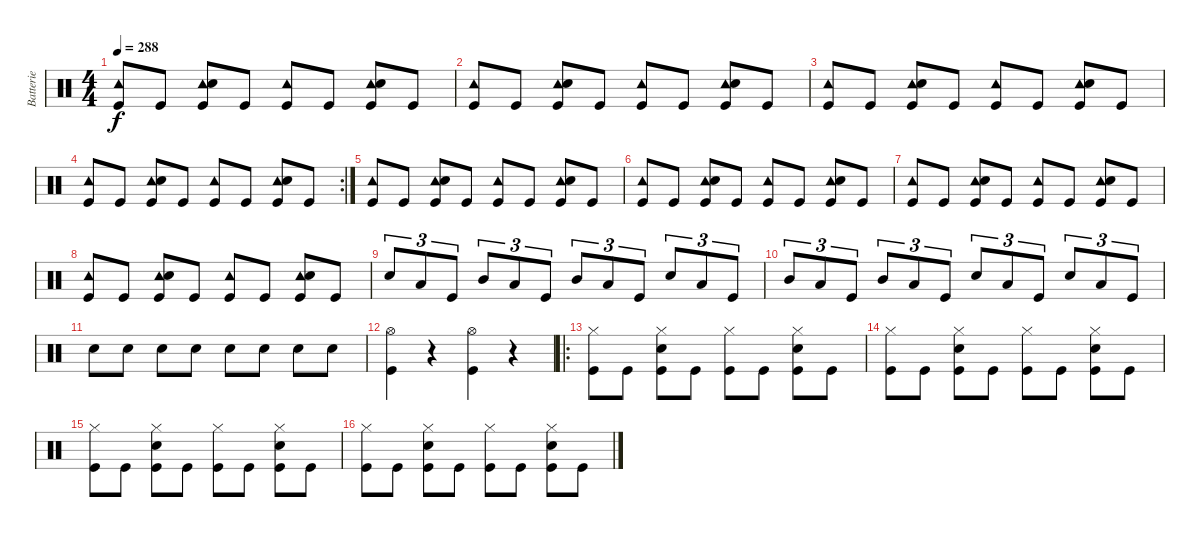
\track ("Batterie" "Batterie") {instrument percussion}
\staff {score}
\articulation defaults
\ts (4 4)
\tempo 288
\clef neutral
\ks c
("Tambourine (hit)" "Kick (hit)").8{dy f} "Kick (hit)".8 ("Tambourine (hit)" "Snare (hit) 2" "Kick (hit)").8 "Kick (hit)".8 ("Tambourine (hit)" "Kick (hit)").8 "Kick (hit)".8 ("Tambourine (hit)" "Snare (hit) 2" "Kick (hit)").8 "Kick (hit)".8 |
("Tambourine (hit)" "Kick (hit)").8 "Kick (hit)".8 ("Tambourine (hit)" "Snare (hit) 2" "Kick (hit)").8 "Kick (hit)".8 ("Tambourine (hit)" "Kick (hit)").8 "Kick (hit)".8 ("Tambourine (hit)" "Snare (hit) 2" "Kick (hit)").8 "Kick (hit)".8 |
("Tambourine (hit)" "Kick (hit)").8 "Kick (hit)".8 ("Tambourine (hit)" "Snare (hit) 2" "Kick (hit)").8 "Kick (hit)".8 ("Tambourine (hit)" "Kick (hit)").8 "Kick (hit)".8 ("Tambourine (hit)" "Snare (hit) 2" "Kick (hit)").8 "Kick (hit)".8 |
\rc 2
("Tambourine (hit)" "Kick (hit)").8 "Kick (hit)".8 ("Tambourine (hit)" "Snare (hit) 2" "Kick (hit)").8 "Kick (hit)".8 ("Tambourine (hit)" "Kick (hit)").8 "Kick (hit)".8 ("Tambourine (hit)" "Snare (hit) 2" "Kick (hit)").8 "Kick (hit)".8 |
("Tambourine (hit)" "Kick (hit)").8 "Kick (hit)".8 ("Tambourine (hit)" "Snare (hit) 2" "Kick (hit)").8 "Kick (hit)".8 ("Tambourine (hit)" "Kick (hit)").8 "Kick (hit)".8 ("Tambourine (hit)" "Snare (hit) 2" "Kick (hit)").8 "Kick (hit)".8 |
("Tambourine (hit)" "Kick (hit)").8 "Kick (hit)".8 ("Tambourine (hit)" "Snare (hit) 2" "Kick (hit)").8 "Kick (hit)".8 ("Tambourine (hit)" "Kick (hit)").8 "Kick (hit)".8 ("Tambourine (hit)" "Snare (hit) 2" "Kick (hit)").8 "Kick (hit)".8 |
("Tambourine (hit)" "Kick (hit)").8 "Kick (hit)".8 ("Tambourine (hit)" "Snare (hit) 2" "Kick (hit)").8 "Kick (hit)".8 ("Tambourine (hit)" "Kick (hit)").8 "Kick (hit)".8 ("Tambourine (hit)" "Snare (hit) 2" "Kick (hit)").8 "Kick (hit)".8 |
("Tambourine (hit)" "Kick (hit)").8 "Kick (hit)".8 ("Tambourine (hit)" "Snare (hit) 2" "Kick (hit)").8 "Kick (hit)".8 ("Tambourine (hit)" "Kick (hit)").8 "Kick (hit)".8 ("Tambourine (hit)" "Snare (hit) 2" "Kick (hit)").8 "Kick (hit)".8 |
"Snare (hit) 2".8{tu (3 2)} "Low Tom (hit)".8{tu (3 2)} "Kick (hit)".8{tu (3 2)} "Mid Tom (hit)".8{tu (3 2)} "Low Tom (hit)".8{tu (3 2)} "Kick (hit)".8{tu (3 2)} "Mid Tom (hit)".8{tu (3 2)} "Low Tom (hit)".8{tu (3 2)} "Kick (hit)".8{tu (3 2)} "Snare (hit) 2".8{tu (3 2)} "Low Tom (hit)".8{tu (3 2)} "Kick (hit)".8{tu (3 2)} |
"Mid Tom (hit)".8{tu (3 2)} "Low Tom (hit)".8{tu (3 2)} "Kick (hit)".8{tu (3 2)} "Mid Tom (hit)".8{tu (3 2)} "Low Tom (hit)".8{tu (3 2)} "Kick (hit)".8{tu (3 2)} "Snare (hit) 2".8{tu (3 2)} "Low Tom (hit)".8{tu (3 2)} "Kick (hit)".8{tu (3 2)} "Snare (hit) 2".8{tu (3 2)} "Low Tom (hit)".8{tu (3 2)} "Kick (hit)".8{tu (3 2)} |
"Snare (hit) 2".8 "Snare (hit) 2".8 "Snare (hit) 2".8 "Snare (hit) 2".8 "Snare (hit) 2".8 "Snare (hit) 2".8 "Snare (hit) 2".8 "Snare (hit) 2".8 |
("Hi-Hat (open)" "Kick (hit)").4 r.4 ("Hi-Hat (open)" "Kick (hit)").4 r.4 |
\ro
("Hi-Hat (closed)" "Kick (hit)").8 "Kick (hit)".8 ("Hi-Hat (closed)" "Snare (hit) 2" "Kick (hit)").8 "Kick (hit)".8 ("Hi-Hat (closed)" "Kick (hit)").8 "Kick (hit)".8 ("Hi-Hat (closed)" "Snare (hit) 2" "Kick (hit)").8 "Kick (hit)".8 |
("Hi-Hat (closed)" "Kick (hit)").8 "Kick (hit)".8 ("Hi-Hat (closed)" "Snare (hit) 2" "Kick (hit)").8 "Kick (hit)".8 ("Hi-Hat (closed)" "Kick (hit)").8 "Kick (hit)".8 ("Hi-Hat (closed)" "Snare (hit) 2" "Kick (hit)").8 "Kick (hit)".8 |
("Hi-Hat (closed)" "Kick (hit)").8 "Kick (hit)".8 ("Hi-Hat (closed)" "Snare (hit) 2" "Kick (hit)").8 "Kick (hit)".8 ("Hi-Hat (closed)" "Kick (hit)").8 "Kick (hit)".8 ("Hi-Hat (closed)" "Snare (hit) 2" "Kick (hit)").8 "Kick (hit)".8 |
("Hi-Hat (closed)" "Kick (hit)").8 "Kick (hit)".8 ("Hi-Hat (closed)" "Snare (hit) 2" "Kick (hit)").8 "Kick (hit)".8 ("Hi-Hat (closed)" "Kick (hit)").8 "Kick (hit)".8 ("Hi-Hat (closed)" "Snare (hit) 2" "Kick (hit)").8 "Kick (hit)".8
